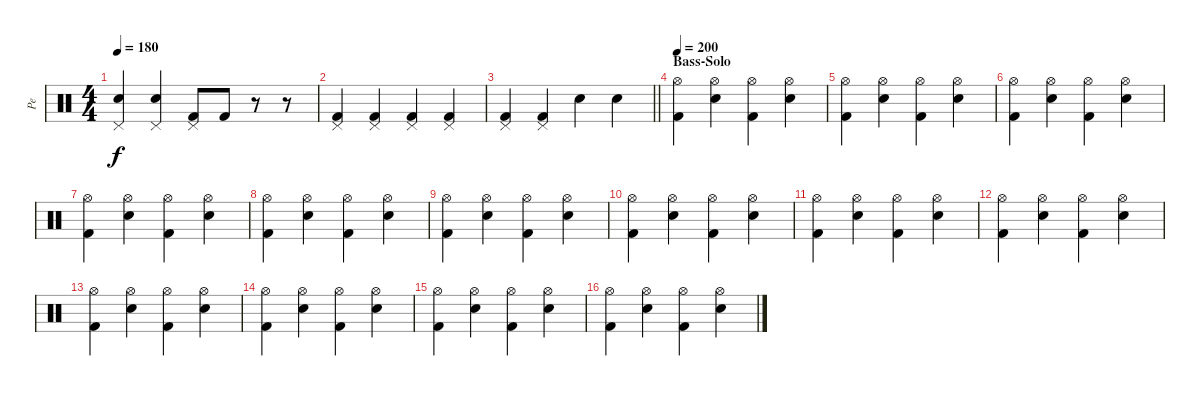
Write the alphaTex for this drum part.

\track ("Pe" "Pe") {instrument percussion}
\staff {score}
\articulation defaults
\ts (4 4)
\tempo 180
\clef neutral
\ks c
("Pedal Hi-Hat (hit)" "Electric Snare (hit)").4{dy f} ("Pedal Hi-Hat (hit)" "Electric Snare (hit)").4 ("Pedal Hi-Hat (hit)" "Kick (hit) 2").8 "Kick (hit) 2".8 r.8 r.8 |
("Pedal Hi-Hat (hit)" "Kick (hit) 2").4 ("Pedal Hi-Hat (hit)" "Kick (hit) 2").4 ("Pedal Hi-Hat (hit)" "Kick (hit) 2").4 ("Pedal Hi-Hat (hit)" "Kick (hit) 2").4 |
\barLineRight lightlight
("Pedal Hi-Hat (hit)" "Kick (hit) 2").4 ("Pedal Hi-Hat (hit)" "Kick (hit) 2").4 "Electric Snare (hit)".4 "Electric Snare (hit)".4 |
\section ("" "Bass-Solo")
\tempo 200
("Hi-Hat (open)" "Kick (hit) 2").4 ("Hi-Hat (open)" "Electric Snare (hit)").4 ("Hi-Hat (open)" "Kick (hit) 2").4 ("Hi-Hat (open)" "Electric Snare (hit)").4 |
("Hi-Hat (open)" "Kick (hit) 2").4 ("Hi-Hat (open)" "Electric Snare (hit)").4 ("Hi-Hat (open)" "Kick (hit) 2").4 ("Hi-Hat (open)" "Electric Snare (hit)").4 |
("Hi-Hat (open)" "Kick (hit) 2").4 ("Hi-Hat (open)" "Electric Snare (hit)").4 ("Hi-Hat (open)" "Kick (hit) 2").4 ("Hi-Hat (open)" "Electric Snare (hit)").4 |
("Hi-Hat (open)" "Kick (hit) 2").4 ("Hi-Hat (open)" "Electric Snare (hit)").4 ("Hi-Hat (open)" "Kick (hit) 2").4 ("Hi-Hat (open)" "Electric Snare (hit)").4 |
("Hi-Hat (open)" "Kick (hit) 2").4 ("Hi-Hat (open)" "Electric Snare (hit)").4 ("Hi-Hat (open)" "Kick (hit) 2").4 ("Hi-Hat (open)" "Electric Snare (hit)").4 |
("Hi-Hat (open)" "Kick (hit) 2").4 ("Hi-Hat (open)" "Electric Snare (hit)").4 ("Hi-Hat (open)" "Kick (hit) 2").4 ("Hi-Hat (open)" "Electric Snare (hit)").4 |
("Hi-Hat (open)" "Kick (hit) 2").4 ("Hi-Hat (open)" "Electric Snare (hit)").4 ("Hi-Hat (open)" "Kick (hit) 2").4 ("Hi-Hat (open)" "Electric Snare (hit)").4 |
("Hi-Hat (open)" "Kick (hit) 2").4 ("Hi-Hat (open)" "Electric Snare (hit)").4 ("Hi-Hat (open)" "Kick (hit) 2").4 ("Hi-Hat (open)" "Electric Snare (hit)").4 |
("Hi-Hat (open)" "Kick (hit) 2").4 ("Hi-Hat (open)" "Electric Snare (hit)").4 ("Hi-Hat (open)" "Kick (hit) 2").4 ("Hi-Hat (open)" "Electric Snare (hit)").4 |
("Hi-Hat (open)" "Kick (hit) 2").4 ("Hi-Hat (open)" "Electric Snare (hit)").4 ("Hi-Hat (open)" "Kick (hit) 2").4 ("Hi-Hat (open)" "Electric Snare (hit)").4 |
("Hi-Hat (open)" "Kick (hit) 2").4 ("Hi-Hat (open)" "Electric Snare (hit)").4 ("Hi-Hat (open)" "Kick (hit) 2").4 ("Hi-Hat (open)" "Electric Snare (hit)").4 |
("Hi-Hat (open)" "Kick (hit) 2").4 ("Hi-Hat (open)" "Electric Snare (hit)").4 ("Hi-Hat (open)" "Kick (hit) 2").4 ("Hi-Hat (open)" "Electric Snare (hit)").4 |
("Hi-Hat (open)" "Kick (hit) 2").4 ("Hi-Hat (open)" "Electric Snare (hit)").4 ("Hi-Hat (open)" "Kick (hit) 2").4 ("Hi-Hat (open)" "Electric Snare (hit)").4
